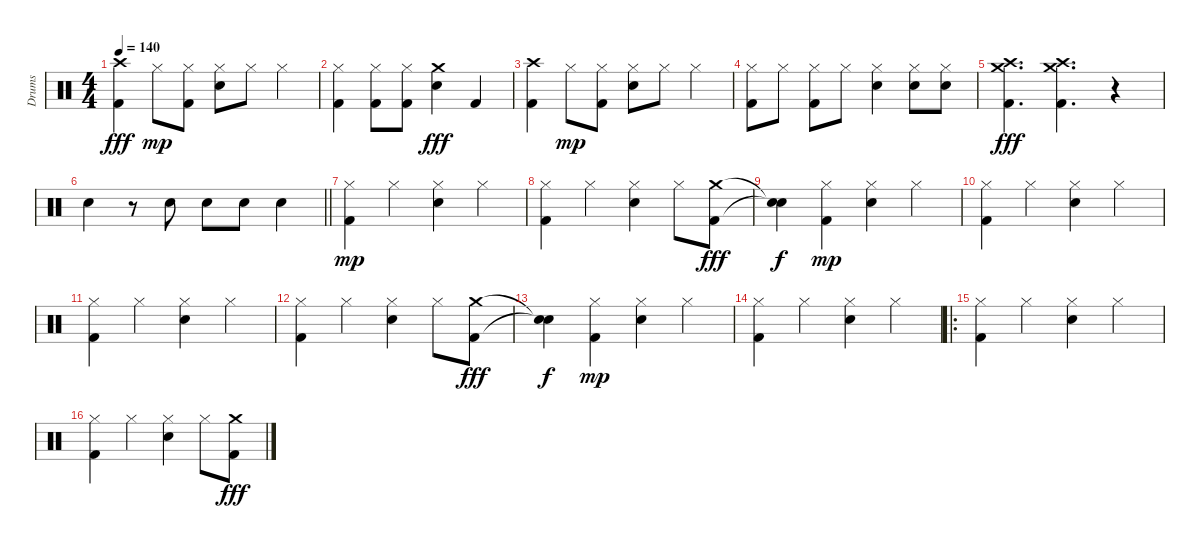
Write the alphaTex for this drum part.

\track ("Drums" "Drums") {instrument percussion}
\staff {score}
\articulation defaults
\ts (4 4)
\tempo 140
\clef neutral
\ks c
("Kick (hit) 2" "Crash high (hit)").4{dy fff} "Hi-Hat (closed)".8{dy mp} ("Kick (hit) 2" "Hi-Hat (closed)").8 ("Electric Snare (hit)" "Hi-Hat (closed)").8 "Hi-Hat (closed)".8 "Hi-Hat (closed)".4 |
("Kick (hit) 2" "Hi-Hat (closed)").4 ("Kick (hit) 2" "Hi-Hat (closed)").8 ("Kick (hit) 2" "Hi-Hat (closed)").8 ("Electric Snare (hit)" "Crash medium (hit)").4{dy fff} "Kick (hit) 2".4 |
("Kick (hit) 2" "Crash high (hit)").4 "Hi-Hat (closed)".8{dy mp} ("Kick (hit) 2" "Hi-Hat (closed)").8 ("Electric Snare (hit)" "Hi-Hat (closed)").8 "Hi-Hat (closed)".8 "Hi-Hat (closed)".4 |
("Kick (hit) 2" "Hi-Hat (closed)").8 "Hi-Hat (closed)".8 ("Kick (hit) 2" "Hi-Hat (closed)").8 "Hi-Hat (closed)".8 ("Electric Snare (hit)" "Hi-Hat (closed)").4 ("Electric Snare (hit)" "Hi-Hat (closed)").8 ("Electric Snare (hit)" "Hi-Hat (closed)").8 |
("Kick (hit) 2" "Crash medium (hit)" "Crash high (hit)").4{d dy fff} ("Kick (hit) 2" "Crash high (hit)" "Crash medium (hit)").4{d} r.4 |
\barLineRight lightlight "Electric Snare (hit)".4
r.8 "Electric Snare (hit)".8 "Electric Snare (hit)".8 "Electric Snare (hit)".8 "Electric Snare (hit)".4 |
("Kick (hit) 2" "Hi-Hat (closed)").4{dy mp} "Hi-Hat (closed)".4 ("Electric Snare (hit)" "Hi-Hat (closed)").4 "Hi-Hat (closed)".4 |
("Kick (hit) 2" "Hi-Hat (closed)").4 "Hi-Hat (closed)".4 ("Electric Snare (hit)" "Hi-Hat (closed)").4 "Hi-Hat (closed)".8 ("Kick (hit) 2" "Crash medium (hit)").8{dy fff} |
("Snare (hit)"{t} "Snare (hit)"{t}).4{dy f} ("Kick (hit) 2" "Hi-Hat (closed)").4{dy mp} ("Electric Snare (hit)" "Hi-Hat (closed)").4 "Hi-Hat (closed)".4 |
("Kick (hit) 2" "Hi-Hat (closed)").4 "Hi-Hat (closed)".4 ("Electric Snare (hit)" "Hi-Hat (closed)").4 "Hi-Hat (closed)".4 |
("Kick (hit) 2" "Hi-Hat (closed)").4 "Hi-Hat (closed)".4 ("Electric Snare (hit)" "Hi-Hat (closed)").4 "Hi-Hat (closed)".4 |
("Kick (hit) 2" "Hi-Hat (closed)").4 "Hi-Hat (closed)".4 ("Electric Snare (hit)" "Hi-Hat (closed)").4 "Hi-Hat (closed)".8 ("Kick (hit) 2" "Crash medium (hit)").8{dy fff} |
("Snare (hit)"{t} "Snare (hit)"{t}).4{dy f} ("Kick (hit) 2" "Hi-Hat (closed)").4{dy mp} ("Electric Snare (hit)" "Hi-Hat (closed)").4 "Hi-Hat (closed)".4 |
("Kick (hit) 2" "Hi-Hat (closed)").4 "Hi-Hat (closed)".4 ("Electric Snare (hit)" "Hi-Hat (closed)").4 "Hi-Hat (closed)".4 |
\ro
("Kick (hit) 2" "Hi-Hat (closed)").4 "Hi-Hat (closed)".4 ("Electric Snare (hit)" "Hi-Hat (closed)").4 "Hi-Hat (closed)".4 |
("Kick (hit) 2" "Hi-Hat (closed)").4 "Hi-Hat (closed)".4 ("Electric Snare (hit)" "Hi-Hat (closed)").4 "Hi-Hat (closed)".8 ("Kick (hit) 2" "Crash medium (hit)").8{dy fff}
